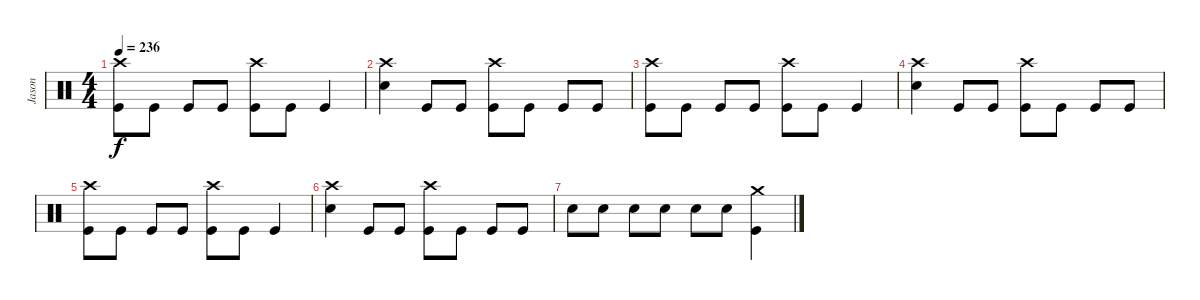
\track ("Jason" "Jason") {instrument percussion}
\staff {score}
\articulation defaults
\ts (4 4)
\tempo 236
\clef neutral
\ks c
("Crash high (hit)" "Kick (hit)").8{dy f} "Kick (hit)".8 "Kick (hit)".8 "Kick (hit)".8 ("Crash high (hit)" "Kick (hit)").8 "Kick (hit)".8 "Kick (hit)".4 |
("Crash high (hit)" "Electric Snare (hit)").4 "Kick (hit)".8 "Kick (hit)".8 ("Crash high (hit)" "Kick (hit)").8 "Kick (hit)".8 "Kick (hit)".8 "Kick (hit)".8 |
("Crash high (hit)" "Kick (hit)").8 "Kick (hit)".8 "Kick (hit)".8 "Kick (hit)".8 ("Crash high (hit)" "Kick (hit)").8 "Kick (hit)".8 "Kick (hit)".4 |
("Crash high (hit)" "Electric Snare (hit)").4 "Kick (hit)".8 "Kick (hit)".8 ("Crash high (hit)" "Kick (hit)").8 "Kick (hit)".8 "Kick (hit)".8 "Kick (hit)".8 |
("Crash high (hit)" "Kick (hit)").8 "Kick (hit)".8 "Kick (hit)".8 "Kick (hit)".8 ("Crash high (hit)" "Kick (hit)").8 "Kick (hit)".8 "Kick (hit)".4 |
("Crash high (hit)" "Electric Snare (hit)").4 "Kick (hit)".8 "Kick (hit)".8 ("Crash high (hit)" "Kick (hit)").8 "Kick (hit)".8 "Kick (hit)".8 "Kick (hit)".8 |
"Electric Snare (hit)".8 "Electric Snare (hit)".8 "Electric Snare (hit)".8 "Electric Snare (hit)".8 "Electric Snare (hit)".8 "Electric Snare (hit)".8 ("Crash medium (hit)" "Kick (hit)").4
